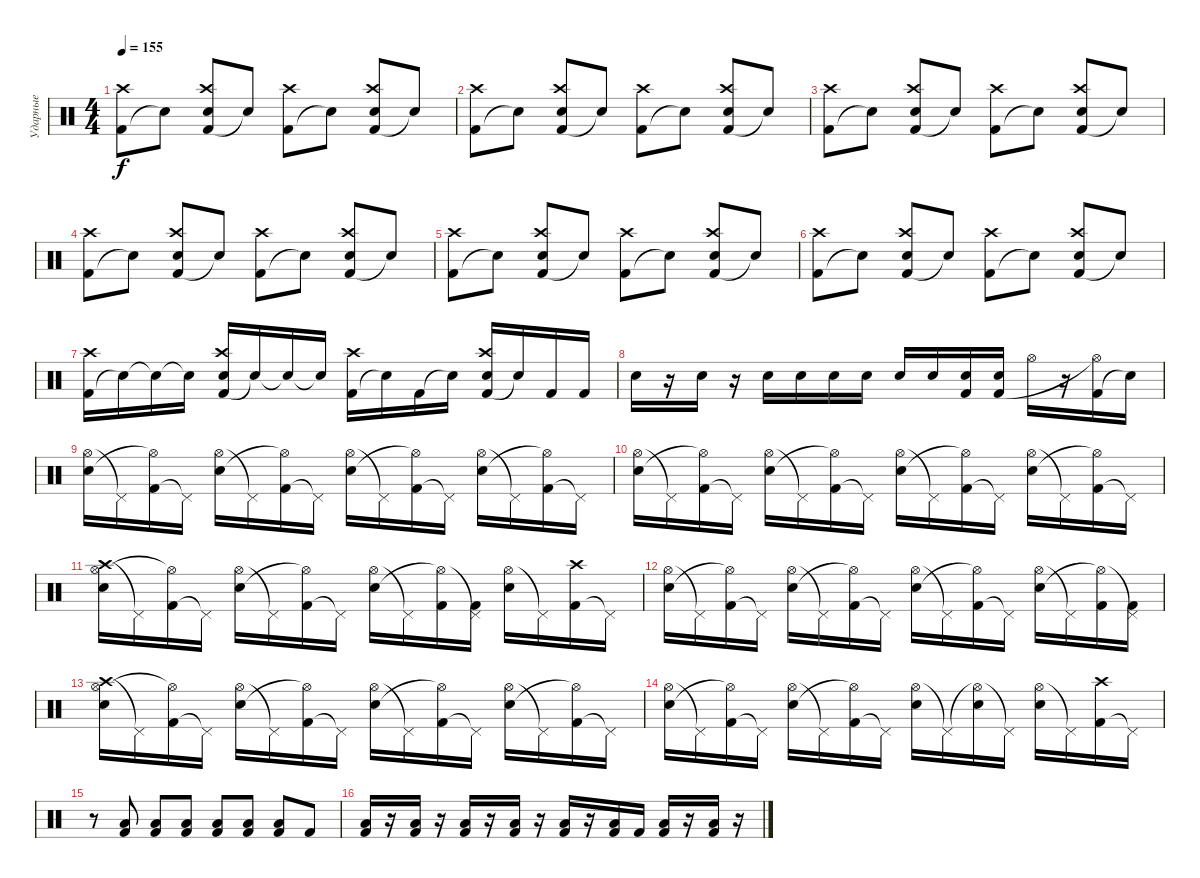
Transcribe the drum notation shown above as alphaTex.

\track ("Ударные" "Ударные") {instrument percussion}
\staff {score}
\articulation defaults
\ts (4 4)
\tempo 155
\clef neutral
\ks c
("Kick (hit) 2" "Crash high (hit)").8{dy f} "Snare (hit)"{t}.8 ("Kick (hit) 2" "Crash high (hit)" "Snare (hit) 2").8 "Snare (hit)"{t}.8 ("Kick (hit) 2" "Crash high (hit)").8 "Snare (hit)"{t}.8 ("Kick (hit) 2" "Crash high (hit)" "Snare (hit) 2").8 "Snare (hit)"{t}.8 |
("Kick (hit) 2" "Crash high (hit)").8 "Snare (hit)"{t}.8 ("Kick (hit) 2" "Crash high (hit)" "Snare (hit) 2").8 "Snare (hit)"{t}.8 ("Kick (hit) 2" "Crash high (hit)").8 "Snare (hit)"{t}.8 ("Kick (hit) 2" "Crash high (hit)" "Snare (hit) 2").8 "Snare (hit)"{t}.8 |
("Kick (hit) 2" "Crash high (hit)").8 "Snare (hit)"{t}.8 ("Kick (hit) 2" "Crash high (hit)" "Snare (hit) 2").8 "Snare (hit)"{t}.8 ("Kick (hit) 2" "Crash high (hit)").8 "Snare (hit)"{t}.8 ("Kick (hit) 2" "Crash high (hit)" "Snare (hit) 2").8 "Snare (hit)"{t}.8 |
("Kick (hit) 2" "Crash high (hit)").8 "Snare (hit)"{t}.8 ("Kick (hit) 2" "Crash high (hit)" "Snare (hit) 2").8 "Snare (hit)"{t}.8 ("Kick (hit) 2" "Crash high (hit)").8 "Snare (hit)"{t}.8 ("Kick (hit) 2" "Crash high (hit)" "Snare (hit) 2").8 "Snare (hit)"{t}.8 |
("Kick (hit) 2" "Crash high (hit)").8 "Snare (hit)"{t}.8 ("Kick (hit) 2" "Crash high (hit)" "Snare (hit) 2").8 "Snare (hit)"{t}.8 ("Kick (hit) 2" "Crash high (hit)").8 "Snare (hit)"{t}.8 ("Kick (hit) 2" "Crash high (hit)" "Snare (hit) 2").8 "Snare (hit)"{t}.8 |
("Kick (hit) 2" "Crash high (hit)").8 "Snare (hit)"{t}.8 ("Kick (hit) 2" "Crash high (hit)" "Snare (hit) 2").8 "Snare (hit)"{t}.8 ("Kick (hit) 2" "Crash high (hit)").8 "Snare (hit)"{t}.8 ("Kick (hit) 2" "Crash high (hit)" "Snare (hit) 2").8 "Snare (hit)"{t}.8 |
("Kick (hit) 2" "Crash high (hit)").16 "Snare (hit)"{t}.16 "Snare (hit)"{t}.16 "Snare (hit)"{t}.16 ("Kick (hit) 2" "Crash high (hit)" "Snare (hit) 2").16 "Snare (hit)"{t}.16 "Snare (hit)"{t}.16 "Snare (hit)"{t}.16 ("Kick (hit) 2" "Crash high (hit)").16 "Snare (hit)"{t}.16 "Kick (hit) 2".16 "Snare (hit)"{t}.16 ("Kick (hit) 2" "Crash high (hit)" "Snare (hit) 2").16 "Snare (hit)"{t}.16 "Kick (hit) 2".16 "Kick (hit) 2".16 |
"Snare (hit) 2".16 r.16 "Snare (hit) 2".16 r.16 "Snare (hit) 2".16 "Snare (hit) 2".16 "Snare (hit) 2".16 "Snare (hit) 2".16 "Snare (hit) 2".16 "Snare (hit) 2".16 ("Snare (hit) 2" "Kick (hit) 2").16 ("Snare (hit) 2" "Kick (hit) 2").16 "Hi-Hat (open)".16 r.16 ("Kick (hit) 2" "Hi-Hat (open)"{t}).16 "Snare (hit)"{t}.16 |
("Hi-Hat (open)" "Snare (hit) 2").16 "Pedal Hi-Hat (hit)"{t}.16 ("Kick (hit) 2" "Hi-Hat (open)"{t}).16 "Pedal Hi-Hat (hit)"{t}.16 ("Hi-Hat (open)" "Snare (hit) 2").16 "Pedal Hi-Hat (hit)"{t}.16 ("Kick (hit) 2" "Hi-Hat (open)"{t}).16 "Pedal Hi-Hat (hit)"{t}.16 ("Hi-Hat (open)" "Snare (hit) 2").16 "Pedal Hi-Hat (hit)"{t}.16 ("Kick (hit) 2" "Hi-Hat (open)"{t}).16 "Pedal Hi-Hat (hit)"{t}.16 ("Hi-Hat (open)" "Snare (hit) 2").16 "Pedal Hi-Hat (hit)"{t}.16 ("Kick (hit) 2" "Hi-Hat (open)"{t}).16 "Pedal Hi-Hat (hit)"{t}.16 |
("Hi-Hat (open)" "Snare (hit) 2").16 "Pedal Hi-Hat (hit)"{t}.16 ("Kick (hit) 2" "Hi-Hat (open)"{t}).16 "Pedal Hi-Hat (hit)"{t}.16 ("Hi-Hat (open)" "Snare (hit) 2").16 "Pedal Hi-Hat (hit)"{t}.16 ("Kick (hit) 2" "Hi-Hat (open)"{t}).16 "Pedal Hi-Hat (hit)"{t}.16 ("Hi-Hat (open)" "Snare (hit) 2").16 "Pedal Hi-Hat (hit)"{t}.16 ("Kick (hit) 2" "Hi-Hat (open)"{t}).16 "Pedal Hi-Hat (hit)"{t}.16 ("Hi-Hat (open)" "Snare (hit) 2").16 "Pedal Hi-Hat (hit)"{t}.16 ("Kick (hit) 2" "Hi-Hat (open)"{t}).16 "Pedal Hi-Hat (hit)"{t}.16 |
("Crash high (hit)" "Hi-Hat (open)" "Snare (hit) 2").16 "Pedal Hi-Hat (hit)"{t}.16 ("Kick (hit) 2" "Hi-Hat (open)"{t}).16 "Pedal Hi-Hat (hit)"{t}.16 ("Hi-Hat (open)" "Snare (hit) 2").16 "Pedal Hi-Hat (hit)"{t}.16 ("Kick (hit) 2" "Hi-Hat (open)"{t}).16 "Pedal Hi-Hat (hit)"{t}.16 ("Hi-Hat (open)" "Snare (hit) 2").16 "Pedal Hi-Hat (hit)"{t}.16 ("Kick (hit) 2" "Hi-Hat (open)"{t}).16 ("Kick (hit) 2" "Pedal Hi-Hat (hit)"{t}).16 ("Hi-Hat (open)" "Snare (hit) 2").16 "Pedal Hi-Hat (hit)"{t}.16 ("Kick (hit) 2" "Crash high (hit)").16 "Pedal Hi-Hat (hit)"{t}.16 |
("Hi-Hat (open)" "Snare (hit) 2").16 "Pedal Hi-Hat (hit)"{t}.16 ("Kick (hit) 2" "Hi-Hat (open)"{t}).16 "Pedal Hi-Hat (hit)"{t}.16 ("Hi-Hat (open)" "Snare (hit) 2").16 "Pedal Hi-Hat (hit)"{t}.16 ("Kick (hit) 2" "Hi-Hat (open)"{t}).16 "Pedal Hi-Hat (hit)"{t}.16 ("Hi-Hat (open)" "Snare (hit) 2").16 "Pedal Hi-Hat (hit)"{t}.16 ("Kick (hit) 2" "Hi-Hat (open)"{t}).16 "Pedal Hi-Hat (hit)"{t}.16 ("Hi-Hat (open)" "Snare (hit) 2").16 "Pedal Hi-Hat (hit)"{t}.16 ("Kick (hit) 2" "Hi-Hat (open)"{t}).16 ("Kick (hit) 2" "Pedal Hi-Hat (hit)"{t}).16 |
("Crash high (hit)" "Hi-Hat (open)" "Snare (hit) 2").16 "Pedal Hi-Hat (hit)"{t}.16 ("Kick (hit) 2" "Hi-Hat (open)"{t}).16 "Pedal Hi-Hat (hit)"{t}.16 ("Hi-Hat (open)" "Snare (hit) 2").16 "Pedal Hi-Hat (hit)"{t}.16 ("Kick (hit) 2" "Hi-Hat (open)"{t}).16 "Pedal Hi-Hat (hit)"{t}.16 ("Hi-Hat (open)" "Snare (hit) 2").16 "Pedal Hi-Hat (hit)"{t}.16 ("Kick (hit) 2" "Hi-Hat (open)"{t}).16 "Pedal Hi-Hat (hit)"{t}.16 ("Hi-Hat (open)" "Snare (hit) 2").16 "Pedal Hi-Hat (hit)"{t}.16 ("Kick (hit) 2" "Hi-Hat (open)"{t}).16 "Pedal Hi-Hat (hit)"{t}.16 |
("Hi-Hat (open)" "Snare (hit) 2").16 "Pedal Hi-Hat (hit)"{t}.16 ("Kick (hit) 2" "Hi-Hat (open)"{t}).16 "Pedal Hi-Hat (hit)"{t}.16 ("Hi-Hat (open)" "Snare (hit) 2").16 "Pedal Hi-Hat (hit)"{t}.16 ("Kick (hit) 2" "Hi-Hat (open)"{t}).16 "Pedal Hi-Hat (hit)"{t}.16 ("Hi-Hat (open)" "Snare (hit) 2").16 "Pedal Hi-Hat (hit)"{t}.16 ("Hi-Hat (open)"{t} "Snare (hit) 2").16 "Pedal Hi-Hat (hit)"{t}.16 ("Hi-Hat (open)" "Snare (hit) 2").16 "Pedal Hi-Hat (hit)"{t}.16 ("Kick (hit) 2" "Crash high (hit)").16 "Pedal Hi-Hat (hit)"{t}.16 |
r.8 ("Kick (hit) 2" "Low Floor Tom (hit)").8 ("Kick (hit) 2" "Low Floor Tom (hit)").8 ("Kick (hit) 2" "Low Floor Tom (hit)").8 ("Kick (hit) 2" "Low Floor Tom (hit)").8 ("Kick (hit) 2" "Low Floor Tom (hit)").8 ("Kick (hit) 2" "Low Floor Tom (hit)").8 "Kick (hit) 2".8 |
("Kick (hit) 2" "Low Floor Tom (hit)").16 r.16 ("Kick (hit) 2" "Low Floor Tom (hit)").16 r.16 ("Kick (hit) 2" "Low Floor Tom (hit)").16 r.16 ("Kick (hit) 2" "Low Floor Tom (hit)").16 r.16 ("Kick (hit) 2" "Low Floor Tom (hit)").16 r.16 ("Kick (hit) 2" "Low Floor Tom (hit)").16 "Kick (hit) 2".16 ("Kick (hit) 2" "Low Floor Tom (hit)").16 r.16 ("Kick (hit) 2" "Low Floor Tom (hit)").16 r.16
